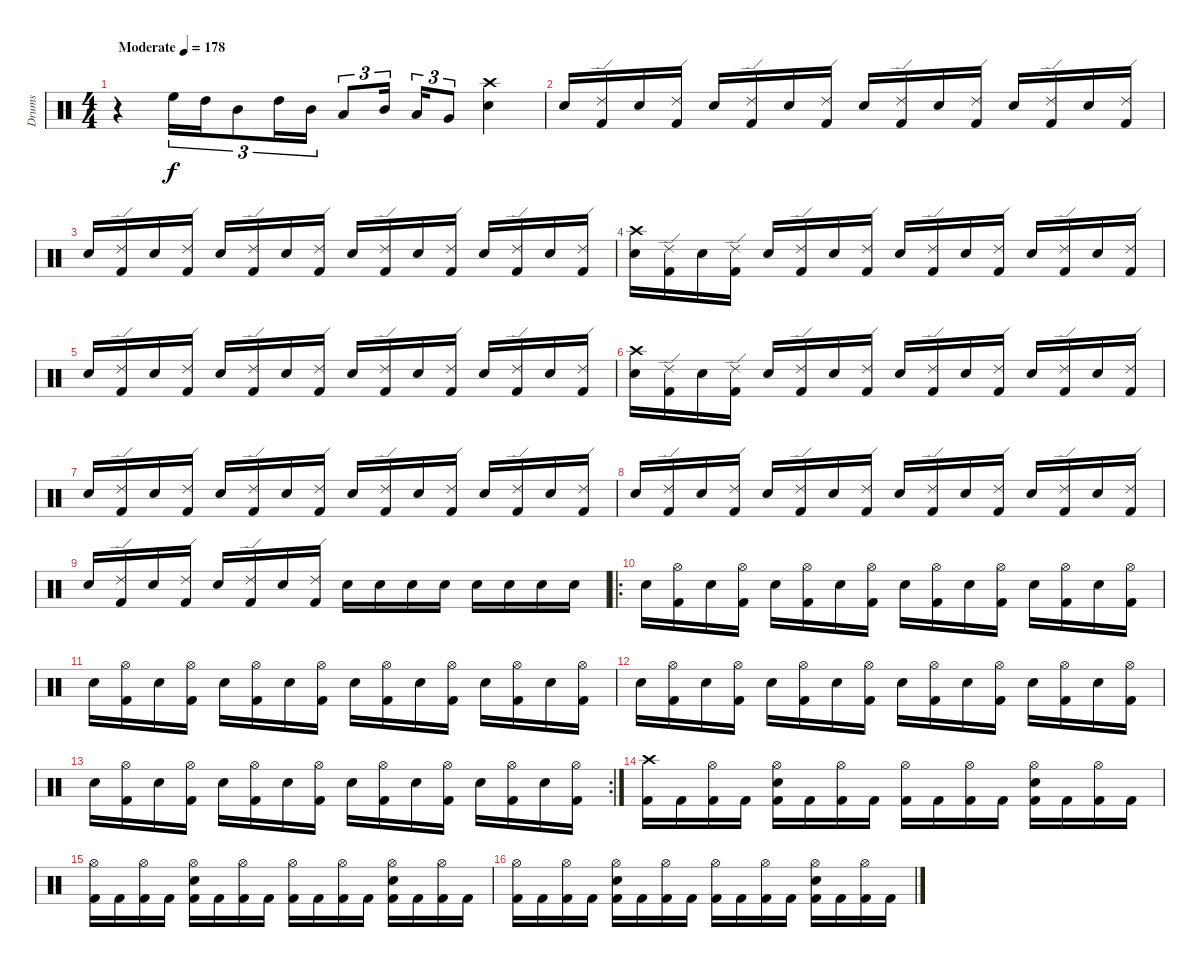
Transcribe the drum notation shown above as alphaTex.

\track ("Drums" "Drums") {instrument percussion}
\staff {score}
\articulation defaults
\ts (4 4)
\tempo (178 "Moderate")
\clef neutral
\ks c
r.4{dy f} "High Floor Tom (hit)".16{tu (3 2)} "High Tom (hit)".16{tu (3 2)} "Mid Tom (hit)".8{tu (3 2)} "High Tom (hit)".16{tu (3 2)} "Mid Tom (hit)".16{tu (3 2)} "Low Tom (hit)".8{tu (3 2)} "Mid Tom (hit)".16{tu (3 2) beam splitsecondary} "Low Tom (hit)".16{tu (3 2)} "Very Low Tom (hit)".8{tu (3 2)} ("Crash high (hit)" "Snare (hit) 2").4 |
"Snare (hit) 2".16 ("Ride (edge) 2" "Kick (hit) 2").16 "Snare (hit) 2".16 ("Ride (edge) 2" "Kick (hit) 2").16 "Snare (hit) 2".16 ("Ride (edge) 2" "Kick (hit) 2").16 "Snare (hit) 2".16 ("Ride (edge) 2" "Kick (hit) 2").16 "Snare (hit) 2".16 ("Ride (edge) 2" "Kick (hit) 2").16 "Snare (hit) 2".16 ("Ride (edge) 2" "Kick (hit) 2").16 "Snare (hit) 2".16 ("Ride (edge) 2" "Kick (hit) 2").16 "Snare (hit) 2".16 ("Ride (edge) 2" "Kick (hit) 2").16 |
"Snare (hit) 2".16 ("Ride (edge) 2" "Kick (hit) 2").16 "Snare (hit) 2".16 ("Ride (edge) 2" "Kick (hit) 2").16 "Snare (hit) 2".16 ("Ride (edge) 2" "Kick (hit) 2").16 "Snare (hit) 2".16 ("Ride (edge) 2" "Kick (hit) 2").16 "Snare (hit) 2".16 ("Ride (edge) 2" "Kick (hit) 2").16 "Snare (hit) 2".16 ("Ride (edge) 2" "Kick (hit) 2").16 "Snare (hit) 2".16 ("Ride (edge) 2" "Kick (hit) 2").16 "Snare (hit) 2".16 ("Ride (edge) 2" "Kick (hit) 2").16 |
("Crash high (hit)" "Snare (hit) 2").16 ("Ride (edge) 2" "Kick (hit) 2").16 "Snare (hit) 2".16 ("Ride (edge) 2" "Kick (hit) 2").16 "Snare (hit) 2".16 ("Ride (edge) 2" "Kick (hit) 2").16 "Snare (hit) 2".16 ("Ride (edge) 2" "Kick (hit) 2").16 "Snare (hit) 2".16 ("Ride (edge) 2" "Kick (hit) 2").16 "Snare (hit) 2".16 ("Ride (edge) 2" "Kick (hit) 2").16 "Snare (hit) 2".16 ("Ride (edge) 2" "Kick (hit) 2").16 "Snare (hit) 2".16 ("Ride (edge) 2" "Kick (hit) 2").16 |
"Snare (hit) 2".16 ("Ride (edge) 2" "Kick (hit) 2").16 "Snare (hit) 2".16 ("Ride (edge) 2" "Kick (hit) 2").16 "Snare (hit) 2".16 ("Ride (edge) 2" "Kick (hit) 2").16 "Snare (hit) 2".16 ("Ride (edge) 2" "Kick (hit) 2").16 "Snare (hit) 2".16 ("Ride (edge) 2" "Kick (hit) 2").16 "Snare (hit) 2".16 ("Ride (edge) 2" "Kick (hit) 2").16 "Snare (hit) 2".16 ("Ride (edge) 2" "Kick (hit) 2").16 "Snare (hit) 2".16 ("Ride (edge) 2" "Kick (hit) 2").16 |
("Crash high (hit)" "Snare (hit) 2").16 ("Ride (edge) 2" "Kick (hit) 2").16 "Snare (hit) 2".16 ("Ride (edge) 2" "Kick (hit) 2").16 "Snare (hit) 2".16 ("Ride (edge) 2" "Kick (hit) 2").16 "Snare (hit) 2".16 ("Ride (edge) 2" "Kick (hit) 2").16 "Snare (hit) 2".16 ("Ride (edge) 2" "Kick (hit) 2").16 "Snare (hit) 2".16 ("Ride (edge) 2" "Kick (hit) 2").16 "Snare (hit) 2".16 ("Ride (edge) 2" "Kick (hit) 2").16 "Snare (hit) 2".16 ("Ride (edge) 2" "Kick (hit) 2").16 |
"Snare (hit) 2".16 ("Ride (edge) 2" "Kick (hit) 2").16 "Snare (hit) 2".16 ("Ride (edge) 2" "Kick (hit) 2").16 "Snare (hit) 2".16 ("Ride (edge) 2" "Kick (hit) 2").16 "Snare (hit) 2".16 ("Ride (edge) 2" "Kick (hit) 2").16 "Snare (hit) 2".16 ("Ride (edge) 2" "Kick (hit) 2").16 "Snare (hit) 2".16 ("Ride (edge) 2" "Kick (hit) 2").16 "Snare (hit) 2".16 ("Ride (edge) 2" "Kick (hit) 2").16 "Snare (hit) 2".16 ("Ride (edge) 2" "Kick (hit) 2").16 |
"Snare (hit) 2".16 ("Ride (edge) 2" "Kick (hit) 2").16 "Snare (hit) 2".16 ("Ride (edge) 2" "Kick (hit) 2").16 "Snare (hit) 2".16 ("Ride (edge) 2" "Kick (hit) 2").16 "Snare (hit) 2".16 ("Ride (edge) 2" "Kick (hit) 2").16 "Snare (hit) 2".16 ("Ride (edge) 2" "Kick (hit) 2").16 "Snare (hit) 2".16 ("Ride (edge) 2" "Kick (hit) 2").16 "Snare (hit) 2".16 ("Ride (edge) 2" "Kick (hit) 2").16 "Snare (hit) 2".16 ("Ride (edge) 2" "Kick (hit) 2").16 |
"Snare (hit) 2".16 ("Ride (edge) 2" "Kick (hit) 2").16 "Snare (hit) 2".16 ("Ride (edge) 2" "Kick (hit) 2").16 "Snare (hit) 2".16 ("Ride (edge) 2" "Kick (hit) 2").16 "Snare (hit) 2".16 ("Ride (edge) 2" "Kick (hit) 2").16 "Snare (hit) 2".16 "Snare (hit) 2".16 "Snare (hit) 2".16 "Snare (hit) 2".16 "Snare (hit) 2".16 "Snare (hit) 2".16 "Snare (hit) 2".16 "Snare (hit) 2".16 |
\ro "Snare (hit) 2".16
("Hi-Hat (open)" "Kick (hit) 2").16 "Snare (hit) 2".16 ("Hi-Hat (open)" "Kick (hit) 2").16 "Snare (hit) 2".16 ("Hi-Hat (open)" "Kick (hit) 2").16 "Snare (hit) 2".16 ("Hi-Hat (open)" "Kick (hit) 2").16 "Snare (hit) 2".16 ("Hi-Hat (open)" "Kick (hit) 2").16 "Snare (hit) 2".16 ("Hi-Hat (open)" "Kick (hit) 2").16 "Snare (hit) 2".16 ("Hi-Hat (open)" "Kick (hit) 2").16 "Snare (hit) 2".16 ("Hi-Hat (open)" "Kick (hit) 2").16 |
"Snare (hit) 2".16 ("Hi-Hat (open)" "Kick (hit) 2").16 "Snare (hit) 2".16 ("Hi-Hat (open)" "Kick (hit) 2").16 "Snare (hit) 2".16 ("Hi-Hat (open)" "Kick (hit) 2").16 "Snare (hit) 2".16 ("Hi-Hat (open)" "Kick (hit) 2").16 "Snare (hit) 2".16 ("Hi-Hat (open)" "Kick (hit) 2").16 "Snare (hit) 2".16 ("Hi-Hat (open)" "Kick (hit) 2").16 "Snare (hit) 2".16 ("Hi-Hat (open)" "Kick (hit) 2").16 "Snare (hit) 2".16 ("Hi-Hat (open)" "Kick (hit) 2").16 |
"Snare (hit) 2".16 ("Hi-Hat (open)" "Kick (hit) 2").16 "Snare (hit) 2".16 ("Hi-Hat (open)" "Kick (hit) 2").16 "Snare (hit) 2".16 ("Hi-Hat (open)" "Kick (hit) 2").16 "Snare (hit) 2".16 ("Hi-Hat (open)" "Kick (hit) 2").16 "Snare (hit) 2".16 ("Hi-Hat (open)" "Kick (hit) 2").16 "Snare (hit) 2".16 ("Hi-Hat (open)" "Kick (hit) 2").16 "Snare (hit) 2".16 ("Hi-Hat (open)" "Kick (hit) 2").16 "Snare (hit) 2".16 ("Hi-Hat (open)" "Kick (hit) 2").16 |
\rc 2 "Snare (hit) 2".16
("Hi-Hat (open)" "Kick (hit) 2").16 "Snare (hit) 2".16 ("Hi-Hat (open)" "Kick (hit) 2").16 "Snare (hit) 2".16 ("Hi-Hat (open)" "Kick (hit) 2").16 "Snare (hit) 2".16 ("Hi-Hat (open)" "Kick (hit) 2").16 "Snare (hit) 2".16 ("Hi-Hat (open)" "Kick (hit) 2").16 "Snare (hit) 2".16 ("Hi-Hat (open)" "Kick (hit) 2").16 "Snare (hit) 2".16 ("Hi-Hat (open)" "Kick (hit) 2").16 "Snare (hit) 2".16 ("Hi-Hat (open)" "Kick (hit) 2").16 |
("Crash high (hit)" "Kick (hit) 2").16 "Kick (hit) 2".16 ("Hi-Hat (open)" "Kick (hit) 2").16 "Kick (hit) 2".16 ("Hi-Hat (open)" "Snare (hit) 2" "Kick (hit) 2").16 "Kick (hit) 2".16 ("Hi-Hat (open)" "Kick (hit) 2").16 "Kick (hit) 2".16 ("Hi-Hat (open)" "Kick (hit) 2").16 "Kick (hit) 2".16 ("Hi-Hat (open)" "Kick (hit) 2").16 "Kick (hit) 2".16 ("Hi-Hat (open)" "Snare (hit) 2" "Kick (hit) 2").16 "Kick (hit) 2".16 ("Hi-Hat (open)" "Kick (hit) 2").16 "Kick (hit) 2".16 |
("Hi-Hat (open)" "Kick (hit) 2").16 "Kick (hit) 2".16 ("Hi-Hat (open)" "Kick (hit) 2").16 "Kick (hit) 2".16 ("Hi-Hat (open)" "Snare (hit) 2" "Kick (hit) 2").16 "Kick (hit) 2".16 ("Hi-Hat (open)" "Kick (hit) 2").16 "Kick (hit) 2".16 ("Hi-Hat (open)" "Kick (hit) 2").16 "Kick (hit) 2".16 ("Hi-Hat (open)" "Kick (hit) 2").16 "Kick (hit) 2".16 ("Hi-Hat (open)" "Snare (hit) 2" "Kick (hit) 2").16 "Kick (hit) 2".16 ("Hi-Hat (open)" "Kick (hit) 2").16 "Kick (hit) 2".16 |
("Hi-Hat (open)" "Kick (hit) 2").16 "Kick (hit) 2".16 ("Hi-Hat (open)" "Kick (hit) 2").16 "Kick (hit) 2".16 ("Hi-Hat (open)" "Snare (hit) 2" "Kick (hit) 2").16 "Kick (hit) 2".16 ("Hi-Hat (open)" "Kick (hit) 2").16 "Kick (hit) 2".16 ("Hi-Hat (open)" "Kick (hit) 2").16 "Kick (hit) 2".16 ("Hi-Hat (open)" "Kick (hit) 2").16 "Kick (hit) 2".16 ("Hi-Hat (open)" "Snare (hit) 2" "Kick (hit) 2").16 "Kick (hit) 2".16 ("Hi-Hat (open)" "Kick (hit) 2").16 "Kick (hit) 2".16
